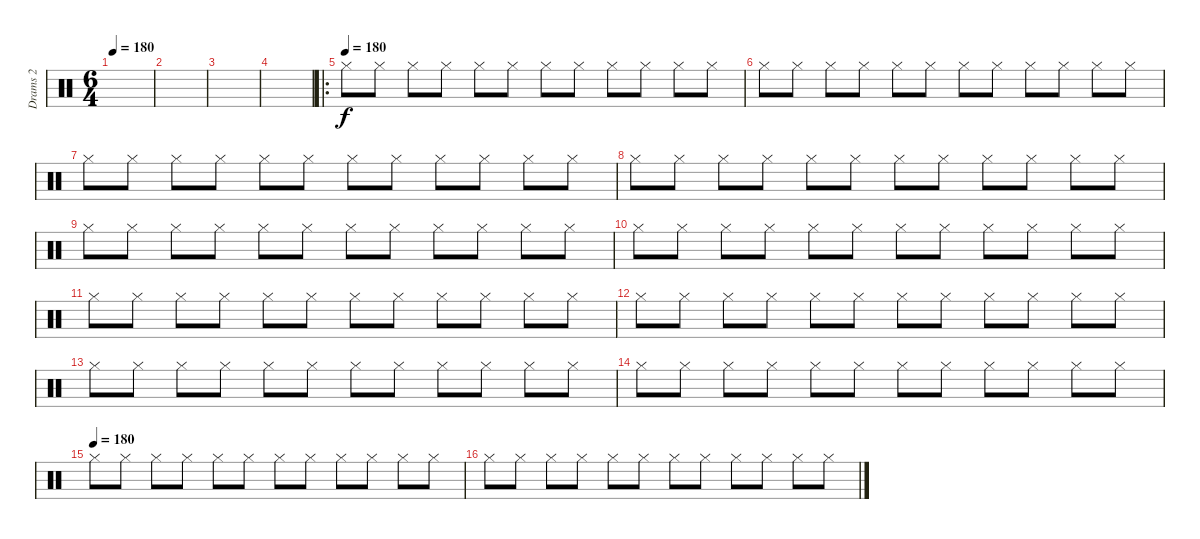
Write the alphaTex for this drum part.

\track ("Drams 2" "Drams 2") {instrument percussion}
\staff {score}
\articulation defaults
\ts (6 4)
\tempo 180
\clef neutral
\ks c
|
|
|
|
\ro
\tempo (180)
"Hi-Hat (closed)".8 "Hi-Hat (closed)".8 "Hi-Hat (closed)".8 "Hi-Hat (closed)".8 "Hi-Hat (closed)".8 "Hi-Hat (closed)".8 "Hi-Hat (closed)".8 "Hi-Hat (closed)".8 "Hi-Hat (closed)".8 "Hi-Hat (closed)".8 "Hi-Hat (closed)".8 "Hi-Hat (closed)".8 |
"Hi-Hat (closed)".8 "Hi-Hat (closed)".8 "Hi-Hat (closed)".8 "Hi-Hat (closed)".8 "Hi-Hat (closed)".8 "Hi-Hat (closed)".8 "Hi-Hat (closed)".8 "Hi-Hat (closed)".8 "Hi-Hat (closed)".8 "Hi-Hat (closed)".8 "Hi-Hat (closed)".8 "Hi-Hat (closed)".8 |
"Hi-Hat (closed)".8 "Hi-Hat (closed)".8 "Hi-Hat (closed)".8 "Hi-Hat (closed)".8 "Hi-Hat (closed)".8 "Hi-Hat (closed)".8 "Hi-Hat (closed)".8 "Hi-Hat (closed)".8 "Hi-Hat (closed)".8 "Hi-Hat (closed)".8 "Hi-Hat (closed)".8 "Hi-Hat (closed)".8 |
"Hi-Hat (closed)".8 "Hi-Hat (closed)".8 "Hi-Hat (closed)".8 "Hi-Hat (closed)".8 "Hi-Hat (closed)".8 "Hi-Hat (closed)".8 "Hi-Hat (closed)".8 "Hi-Hat (closed)".8 "Hi-Hat (closed)".8 "Hi-Hat (closed)".8 "Hi-Hat (closed)".8 "Hi-Hat (closed)".8 |
"Hi-Hat (closed)".8 "Hi-Hat (closed)".8 "Hi-Hat (closed)".8 "Hi-Hat (closed)".8 "Hi-Hat (closed)".8 "Hi-Hat (closed)".8 "Hi-Hat (closed)".8 "Hi-Hat (closed)".8 "Hi-Hat (closed)".8 "Hi-Hat (closed)".8 "Hi-Hat (closed)".8 "Hi-Hat (closed)".8 |
"Hi-Hat (closed)".8 "Hi-Hat (closed)".8 "Hi-Hat (closed)".8 "Hi-Hat (closed)".8 "Hi-Hat (closed)".8 "Hi-Hat (closed)".8 "Hi-Hat (closed)".8 "Hi-Hat (closed)".8 "Hi-Hat (closed)".8 "Hi-Hat (closed)".8 "Hi-Hat (closed)".8 "Hi-Hat (closed)".8 |
"Hi-Hat (closed)".8 "Hi-Hat (closed)".8 "Hi-Hat (closed)".8 "Hi-Hat (closed)".8 "Hi-Hat (closed)".8 "Hi-Hat (closed)".8 "Hi-Hat (closed)".8 "Hi-Hat (closed)".8 "Hi-Hat (closed)".8 "Hi-Hat (closed)".8 "Hi-Hat (closed)".8 "Hi-Hat (closed)".8 |
"Hi-Hat (closed)".8 "Hi-Hat (closed)".8 "Hi-Hat (closed)".8 "Hi-Hat (closed)".8 "Hi-Hat (closed)".8 "Hi-Hat (closed)".8 "Hi-Hat (closed)".8 "Hi-Hat (closed)".8 "Hi-Hat (closed)".8 "Hi-Hat (closed)".8 "Hi-Hat (closed)".8 "Hi-Hat (closed)".8 |
"Hi-Hat (closed)".8 "Hi-Hat (closed)".8 "Hi-Hat (closed)".8 "Hi-Hat (closed)".8 "Hi-Hat (closed)".8 "Hi-Hat (closed)".8 "Hi-Hat (closed)".8 "Hi-Hat (closed)".8 "Hi-Hat (closed)".8 "Hi-Hat (closed)".8 "Hi-Hat (closed)".8 "Hi-Hat (closed)".8 |
"Hi-Hat (closed)".8 "Hi-Hat (closed)".8 "Hi-Hat (closed)".8 "Hi-Hat (closed)".8 "Hi-Hat (closed)".8 "Hi-Hat (closed)".8 "Hi-Hat (closed)".8 "Hi-Hat (closed)".8 "Hi-Hat (closed)".8 "Hi-Hat (closed)".8 "Hi-Hat (closed)".8 "Hi-Hat (closed)".8 |
\tempo (180)
"Hi-Hat (closed)".8 "Hi-Hat (closed)".8 "Hi-Hat (closed)".8 "Hi-Hat (closed)".8 "Hi-Hat (closed)".8 "Hi-Hat (closed)".8 "Hi-Hat (closed)".8 "Hi-Hat (closed)".8 "Hi-Hat (closed)".8 "Hi-Hat (closed)".8 "Hi-Hat (closed)".8 "Hi-Hat (closed)".8 |
"Hi-Hat (closed)".8 "Hi-Hat (closed)".8 "Hi-Hat (closed)".8 "Hi-Hat (closed)".8 "Hi-Hat (closed)".8 "Hi-Hat (closed)".8 "Hi-Hat (closed)".8 "Hi-Hat (closed)".8 "Hi-Hat (closed)".8 "Hi-Hat (closed)".8 "Hi-Hat (closed)".8 "Hi-Hat (closed)".8
